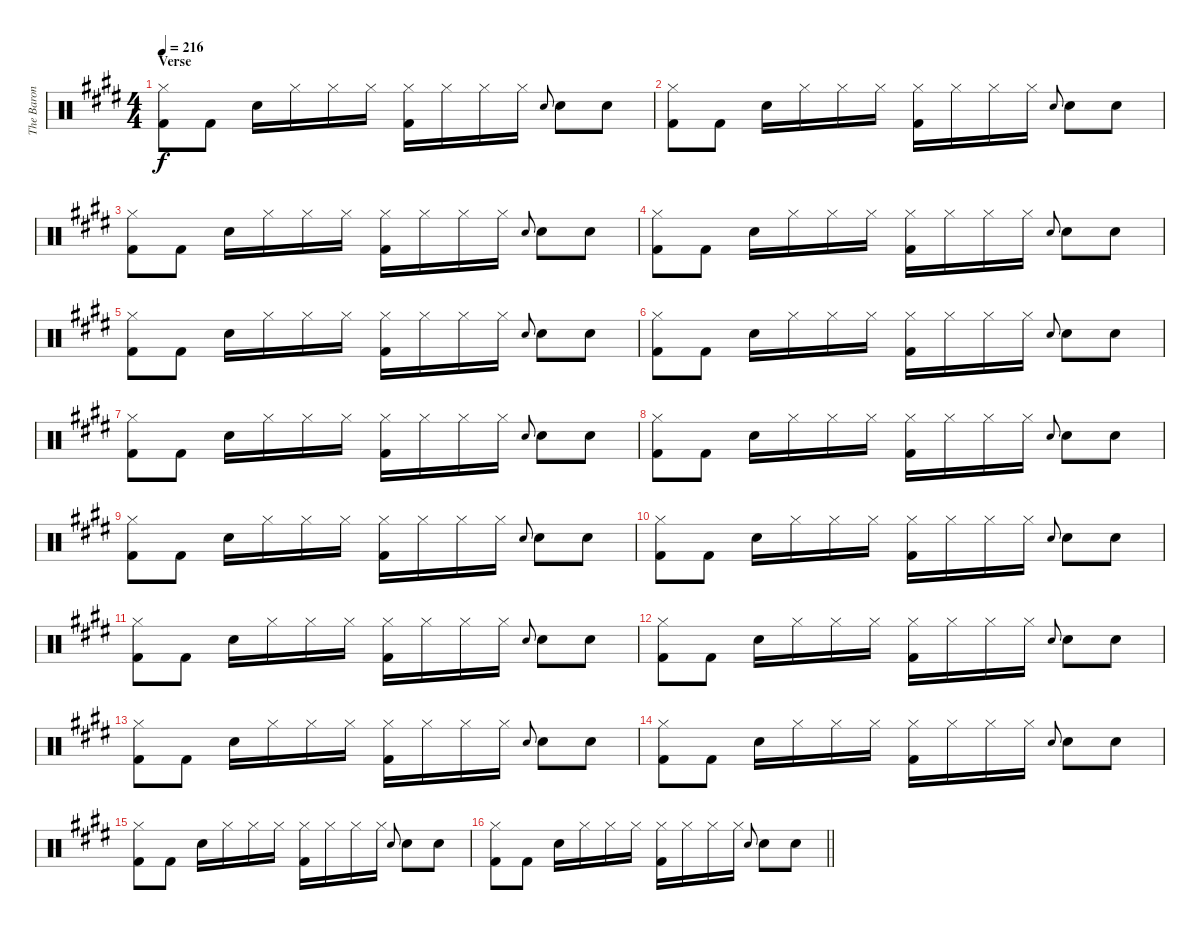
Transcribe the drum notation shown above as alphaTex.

\track ("The Baron Von Tito" "The Baron ") {instrument percussion}
\staff {score}
\articulation defaults
\ts (4 4)
\section ("" "Verse")
\tempo 216
\clef neutral
\ks e
("Hi-Hat (closed)" "Kick (hit) 2").8{dy f} "Kick (hit) 2".8 "Electric Snare (hit)".16 "Hi-Hat (closed)".16 "Hi-Hat (closed)".16 "Hi-Hat (closed)".16 ("Hi-Hat (closed)" "Kick (hit) 2").16 "Hi-Hat (closed)".16 "Hi-Hat (closed)".16 "Hi-Hat (closed)".16 "Electric Snare (hit)".8{gr onbeat} "Electric Snare (hit)".8 "Electric Snare (hit)".8 |
("Hi-Hat (closed)" "Kick (hit) 2").8 "Kick (hit) 2".8 "Electric Snare (hit)".16 "Hi-Hat (closed)".16 "Hi-Hat (closed)".16 "Hi-Hat (closed)".16 ("Hi-Hat (closed)" "Kick (hit) 2").16 "Hi-Hat (closed)".16 "Hi-Hat (closed)".16 "Hi-Hat (closed)".16 "Electric Snare (hit)".8{gr onbeat} "Electric Snare (hit)".8 "Electric Snare (hit)".8 |
("Hi-Hat (closed)" "Kick (hit) 2").8 "Kick (hit) 2".8 "Electric Snare (hit)".16 "Hi-Hat (closed)".16 "Hi-Hat (closed)".16 "Hi-Hat (closed)".16 ("Hi-Hat (closed)" "Kick (hit) 2").16 "Hi-Hat (closed)".16 "Hi-Hat (closed)".16 "Hi-Hat (closed)".16 "Electric Snare (hit)".8{gr onbeat} "Electric Snare (hit)".8 "Electric Snare (hit)".8 |
("Hi-Hat (closed)" "Kick (hit) 2").8 "Kick (hit) 2".8 "Electric Snare (hit)".16 "Hi-Hat (closed)".16 "Hi-Hat (closed)".16 "Hi-Hat (closed)".16 ("Hi-Hat (closed)" "Kick (hit) 2").16 "Hi-Hat (closed)".16 "Hi-Hat (closed)".16 "Hi-Hat (closed)".16 "Electric Snare (hit)".8{gr onbeat} "Electric Snare (hit)".8 "Electric Snare (hit)".8 |
("Hi-Hat (closed)" "Kick (hit) 2").8 "Kick (hit) 2".8 "Electric Snare (hit)".16 "Hi-Hat (closed)".16 "Hi-Hat (closed)".16 "Hi-Hat (closed)".16 ("Hi-Hat (closed)" "Kick (hit) 2").16 "Hi-Hat (closed)".16 "Hi-Hat (closed)".16 "Hi-Hat (closed)".16 "Electric Snare (hit)".8{gr onbeat} "Electric Snare (hit)".8 "Electric Snare (hit)".8 |
("Hi-Hat (closed)" "Kick (hit) 2").8 "Kick (hit) 2".8 "Electric Snare (hit)".16 "Hi-Hat (closed)".16 "Hi-Hat (closed)".16 "Hi-Hat (closed)".16 ("Hi-Hat (closed)" "Kick (hit) 2").16 "Hi-Hat (closed)".16 "Hi-Hat (closed)".16 "Hi-Hat (closed)".16 "Electric Snare (hit)".8{gr onbeat} "Electric Snare (hit)".8 "Electric Snare (hit)".8 |
("Hi-Hat (closed)" "Kick (hit) 2").8 "Kick (hit) 2".8 "Electric Snare (hit)".16 "Hi-Hat (closed)".16 "Hi-Hat (closed)".16 "Hi-Hat (closed)".16 ("Hi-Hat (closed)" "Kick (hit) 2").16 "Hi-Hat (closed)".16 "Hi-Hat (closed)".16 "Hi-Hat (closed)".16 "Electric Snare (hit)".8{gr onbeat} "Electric Snare (hit)".8 "Electric Snare (hit)".8 |
("Hi-Hat (closed)" "Kick (hit) 2").8 "Kick (hit) 2".8 "Electric Snare (hit)".16 "Hi-Hat (closed)".16 "Hi-Hat (closed)".16 "Hi-Hat (closed)".16 ("Hi-Hat (closed)" "Kick (hit) 2").16 "Hi-Hat (closed)".16 "Hi-Hat (closed)".16 "Hi-Hat (closed)".16 "Electric Snare (hit)".8{gr onbeat} "Electric Snare (hit)".8 "Electric Snare (hit)".8 |
("Hi-Hat (closed)" "Kick (hit) 2").8 "Kick (hit) 2".8 "Electric Snare (hit)".16 "Hi-Hat (closed)".16 "Hi-Hat (closed)".16 "Hi-Hat (closed)".16 ("Hi-Hat (closed)" "Kick (hit) 2").16 "Hi-Hat (closed)".16 "Hi-Hat (closed)".16 "Hi-Hat (closed)".16 "Electric Snare (hit)".8{gr onbeat} "Electric Snare (hit)".8 "Electric Snare (hit)".8 |
("Hi-Hat (closed)" "Kick (hit) 2").8 "Kick (hit) 2".8 "Electric Snare (hit)".16 "Hi-Hat (closed)".16 "Hi-Hat (closed)".16 "Hi-Hat (closed)".16 ("Hi-Hat (closed)" "Kick (hit) 2").16 "Hi-Hat (closed)".16 "Hi-Hat (closed)".16 "Hi-Hat (closed)".16 "Electric Snare (hit)".8{gr onbeat} "Electric Snare (hit)".8 "Electric Snare (hit)".8 |
("Hi-Hat (closed)" "Kick (hit) 2").8 "Kick (hit) 2".8 "Electric Snare (hit)".16 "Hi-Hat (closed)".16 "Hi-Hat (closed)".16 "Hi-Hat (closed)".16 ("Hi-Hat (closed)" "Kick (hit) 2").16 "Hi-Hat (closed)".16 "Hi-Hat (closed)".16 "Hi-Hat (closed)".16 "Electric Snare (hit)".8{gr onbeat} "Electric Snare (hit)".8 "Electric Snare (hit)".8 |
("Hi-Hat (closed)" "Kick (hit) 2").8 "Kick (hit) 2".8 "Electric Snare (hit)".16 "Hi-Hat (closed)".16 "Hi-Hat (closed)".16 "Hi-Hat (closed)".16 ("Hi-Hat (closed)" "Kick (hit) 2").16 "Hi-Hat (closed)".16 "Hi-Hat (closed)".16 "Hi-Hat (closed)".16 "Electric Snare (hit)".8{gr onbeat} "Electric Snare (hit)".8 "Electric Snare (hit)".8 |
("Hi-Hat (closed)" "Kick (hit) 2").8 "Kick (hit) 2".8 "Electric Snare (hit)".16 "Hi-Hat (closed)".16 "Hi-Hat (closed)".16 "Hi-Hat (closed)".16 ("Hi-Hat (closed)" "Kick (hit) 2").16 "Hi-Hat (closed)".16 "Hi-Hat (closed)".16 "Hi-Hat (closed)".16 "Electric Snare (hit)".8{gr onbeat} "Electric Snare (hit)".8 "Electric Snare (hit)".8 |
("Hi-Hat (closed)" "Kick (hit) 2").8 "Kick (hit) 2".8 "Electric Snare (hit)".16 "Hi-Hat (closed)".16 "Hi-Hat (closed)".16 "Hi-Hat (closed)".16 ("Hi-Hat (closed)" "Kick (hit) 2").16 "Hi-Hat (closed)".16 "Hi-Hat (closed)".16 "Hi-Hat (closed)".16 "Electric Snare (hit)".8{gr onbeat} "Electric Snare (hit)".8 "Electric Snare (hit)".8 |
("Hi-Hat (closed)" "Kick (hit) 2").8 "Kick (hit) 2".8 "Electric Snare (hit)".16 "Hi-Hat (closed)".16 "Hi-Hat (closed)".16 "Hi-Hat (closed)".16 ("Hi-Hat (closed)" "Kick (hit) 2").16 "Hi-Hat (closed)".16 "Hi-Hat (closed)".16 "Hi-Hat (closed)".16 "Electric Snare (hit)".8{gr onbeat} "Electric Snare (hit)".8 "Electric Snare (hit)".8 |
\barLineRight lightlight
("Hi-Hat (closed)" "Kick (hit) 2").8 "Kick (hit) 2".8 "Electric Snare (hit)".16 "Hi-Hat (closed)".16 "Hi-Hat (closed)".16 "Hi-Hat (closed)".16 ("Hi-Hat (closed)" "Kick (hit) 2").16 "Hi-Hat (closed)".16 "Hi-Hat (closed)".16 "Hi-Hat (closed)".16 "Electric Snare (hit)".8{gr onbeat} "Electric Snare (hit)".8 "Electric Snare (hit)".8
